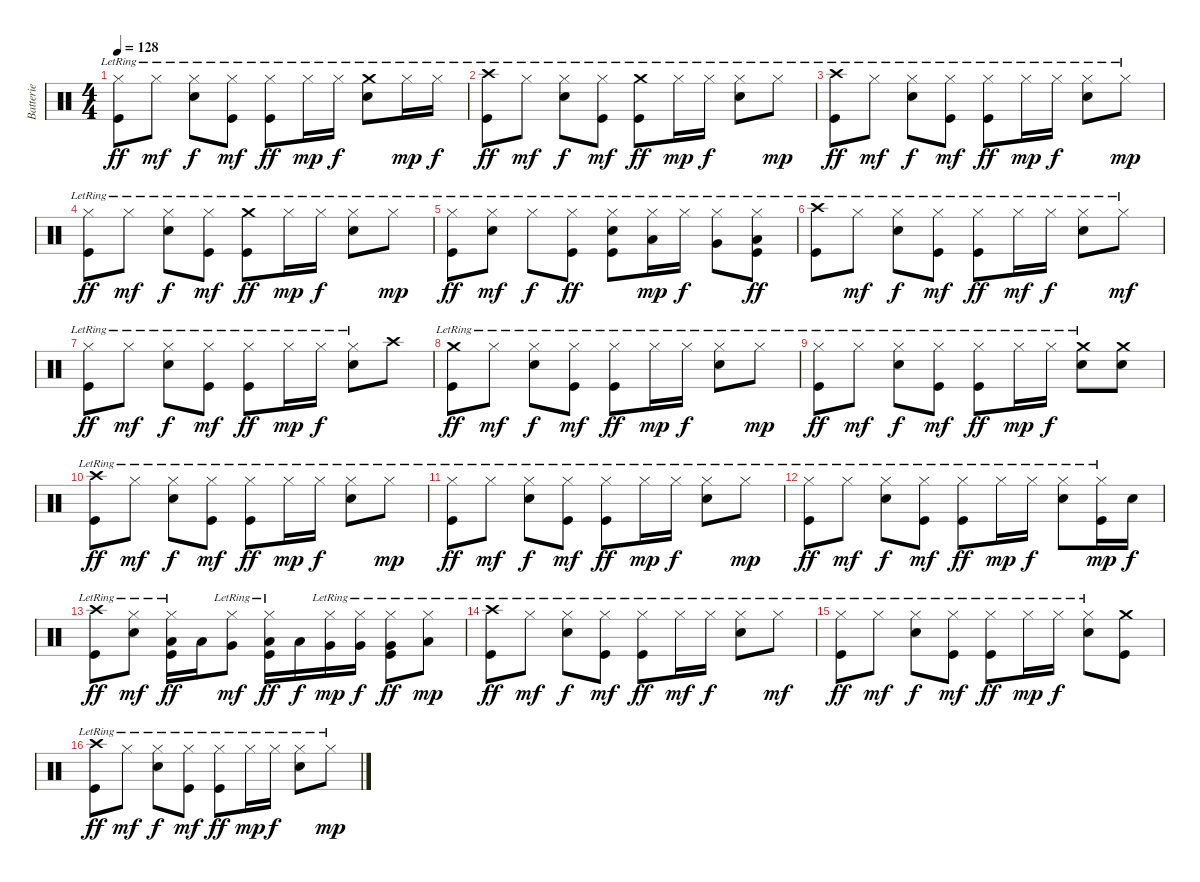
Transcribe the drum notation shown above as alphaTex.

\track ("Batterie" "Batterie") {instrument percussion}
\staff {score}
\articulation defaults
\ts (4 4)
\tempo 128
\clef neutral
\ks c
("Hi-Hat (closed)"{lr} "Kick (hit)"{lr}).8{dy ff} "Hi-Hat (closed)"{lr}.8{dy mf} ("Hi-Hat (closed)"{lr} "Snare (hit) 2"{lr}).8{dy f} ("Hi-Hat (closed)"{lr} "Kick (hit)"{lr}).8{dy mf} ("Hi-Hat (closed)"{lr} "Kick (hit)"{lr}).8{dy ff} "Hi-Hat (closed)"{lr}.16{dy mp} "Hi-Hat (closed)"{lr}.16{dy f} ("Crash medium (hit)" "Snare (hit) 2"{lr}).8 "Hi-Hat (closed)"{lr}.16{dy mp} "Hi-Hat (closed)"{lr}.16{dy f} |
("Crash high (hit)" "Kick (hit)"{lr}).8{dy ff} "Hi-Hat (closed)"{lr}.8{dy mf} ("Hi-Hat (closed)"{lr} "Snare (hit) 2"{lr}).8{dy f} ("Hi-Hat (closed)"{lr} "Kick (hit)"{lr}).8{dy mf} ("Crash medium (hit)" "Kick (hit)"{lr}).8{dy ff} "Hi-Hat (closed)"{lr}.16{dy mp} "Hi-Hat (closed)"{lr}.16{dy f} ("Hi-Hat (closed)"{lr} "Snare (hit) 2"{lr}).8 "Hi-Hat (closed)"{lr}.8{dy mp} |
("Crash high (hit)" "Kick (hit)"{lr}).8{dy ff} "Hi-Hat (closed)"{lr}.8{dy mf} ("Hi-Hat (closed)"{lr} "Snare (hit) 2"{lr}).8{dy f} ("Hi-Hat (closed)"{lr} "Kick (hit)"{lr}).8{dy mf} ("Hi-Hat (closed)"{lr} "Kick (hit)"{lr}).8{dy ff} "Hi-Hat (closed)"{lr}.16{dy mp} "Hi-Hat (closed)"{lr}.16{dy f} ("Hi-Hat (closed)"{lr} "Snare (hit) 2"{lr}).8 "Hi-Hat (closed)"{lr}.8{dy mp} |
("Hi-Hat (closed)"{lr} "Kick (hit)"{lr}).8{dy ff} "Hi-Hat (closed)"{lr}.8{dy mf} ("Hi-Hat (closed)"{lr} "Snare (hit) 2"{lr}).8{dy f} ("Hi-Hat (closed)"{lr} "Kick (hit)"{lr}).8{dy mf} ("Crash medium (hit)" "Kick (hit)"{lr}).8{dy ff} "Hi-Hat (closed)"{lr}.16{dy mp} "Hi-Hat (closed)"{lr}.16{dy f} ("Hi-Hat (closed)"{lr} "Snare (hit) 2"{lr}).8 "Hi-Hat (closed)"{lr}.8{dy mp} |
("Hi-Hat (closed)"{lr} "Kick (hit)"{lr}).8{dy ff} ("Hi-Hat (closed)"{lr} "Snare (hit) 2").8{dy mf} "Hi-Hat (closed)"{lr}.8{dy f} ("Hi-Hat (closed)"{lr} "Kick (hit)").8{dy ff} ("Hi-Hat (closed)"{lr} "Snare (hit) 2" "Kick (hit)"{lr}).8 ("Low Tom (hit)" "Hi-Hat (closed)"{lr}).16{dy mp} "Hi-Hat (closed)"{lr}.16{dy f} ("Very Low Tom (hit)" "Hi-Hat (closed)"{lr}).8 ("Low Floor Tom (hit)" "Hi-Hat (closed)"{lr} "Kick (hit)"{lr}).8{dy ff} |
("Crash high (hit)"{lr} "Kick (hit)"{lr}).8 "Hi-Hat (closed)"{lr}.8{dy mf} ("Hi-Hat (closed)"{lr} "Snare (hit) 2"{lr}).8{dy f} ("Hi-Hat (closed)"{lr} "Kick (hit)"{lr}).8{dy mf} ("Hi-Hat (closed)"{lr} "Kick (hit)"{lr}).8{dy ff} "Hi-Hat (closed)"{lr}.16{dy mf} "Hi-Hat (closed)"{lr}.16{dy f} ("Hi-Hat (closed)"{lr} "Snare (hit) 2"{lr}).8 "Hi-Hat (closed)"{lr}.8{dy mf} |
("Hi-Hat (closed)"{lr} "Kick (hit)"{lr}).8{dy ff} "Hi-Hat (closed)"{lr}.8{dy mf} ("Hi-Hat (closed)"{lr} "Snare (hit) 2"{lr}).8{dy f} ("Hi-Hat (closed)"{lr} "Kick (hit)"{lr}).8{dy mf} ("Hi-Hat (closed)"{lr} "Kick (hit)"{lr}).8{dy ff} "Hi-Hat (closed)"{lr}.16{dy mp} "Hi-Hat (closed)"{lr}.16{dy f} ("Hi-Hat (closed)"{lr} "Snare (hit) 2"{lr}).8 "Crash high (hit)".8 |
("Crash medium (hit)" "Kick (hit)"{lr}).8{dy ff} "Hi-Hat (closed)"{lr}.8{dy mf} ("Hi-Hat (closed)"{lr} "Snare (hit) 2"{lr}).8{dy f} ("Hi-Hat (closed)"{lr} "Kick (hit)"{lr}).8{dy mf} ("Hi-Hat (closed)"{lr} "Kick (hit)"{lr}).8{dy ff} "Hi-Hat (closed)"{lr}.16{dy mp} "Hi-Hat (closed)"{lr}.16{dy f} ("Hi-Hat (closed)"{lr} "Snare (hit) 2"{lr}).8 "Hi-Hat (closed)"{lr}.8{dy mp} |
("Hi-Hat (closed)"{lr} "Kick (hit)"{lr}).8{dy ff} "Hi-Hat (closed)"{lr}.8{dy mf} ("Hi-Hat (closed)"{lr} "Snare (hit) 2"{lr}).8{dy f} ("Hi-Hat (closed)"{lr} "Kick (hit)"{lr}).8{dy mf} ("Hi-Hat (closed)"{lr} "Kick (hit)"{lr}).8{dy ff} "Hi-Hat (closed)"{lr}.16{dy mp} "Hi-Hat (closed)"{lr}.16{dy f} ("Crash medium (hit)" "Snare (hit) 2"{lr}).8 ("Crash medium (hit)" "Snare (hit) 2").8 |
("Crash high (hit)" "Kick (hit)"{lr}).8{dy ff} "Hi-Hat (closed)"{lr}.8{dy mf} ("Hi-Hat (closed)"{lr} "Snare (hit) 2"{lr}).8{dy f} ("Hi-Hat (closed)"{lr} "Kick (hit)"{lr}).8{dy mf} ("Hi-Hat (closed)"{lr} "Kick (hit)"{lr}).8{dy ff} "Hi-Hat (closed)"{lr}.16{dy mp} "Hi-Hat (closed)"{lr}.16{dy f} ("Hi-Hat (closed)"{lr} "Snare (hit) 2"{lr}).8 "Hi-Hat (closed)"{lr}.8{dy mp} |
("Hi-Hat (closed)"{lr} "Kick (hit)"{lr}).8{dy ff} "Hi-Hat (closed)"{lr}.8{dy mf} ("Hi-Hat (closed)"{lr} "Snare (hit) 2"{lr}).8{dy f} ("Hi-Hat (closed)"{lr} "Kick (hit)"{lr}).8{dy mf} ("Hi-Hat (closed)"{lr} "Kick (hit)"{lr}).8{dy ff} "Hi-Hat (closed)"{lr}.16{dy mp} "Hi-Hat (closed)"{lr}.16{dy f} ("Hi-Hat (closed)"{lr} "Snare (hit) 2"{lr}).8 "Hi-Hat (closed)"{lr}.8{dy mp} |
("Hi-Hat (closed)"{lr} "Kick (hit)"{lr}).8{dy ff} "Hi-Hat (closed)"{lr}.8{dy mf} ("Hi-Hat (closed)"{lr} "Snare (hit) 2"{lr}).8{dy f} ("Hi-Hat (closed)"{lr} "Kick (hit)"{lr}).8{dy mf} ("Hi-Hat (closed)"{lr} "Kick (hit)"{lr}).8{dy ff} "Hi-Hat (closed)"{lr}.16{dy mp} "Hi-Hat (closed)"{lr}.16{dy f} ("Hi-Hat (closed)"{lr} "Snare (hit) 2"{lr}).8 ("Hi-Hat (closed)"{lr} "Kick (hit)").16{dy mp} "Snare (hit) 2".16{dy f} |
("Crash high (hit)"{lr} "Kick (hit)"{lr}).8{dy ff} ("Hi-Hat (closed)"{lr} "Snare (hit) 2").8{dy mf} ("Low Tom (hit)" "Hi-Hat (closed)"{lr} "Kick (hit)").16{dy ff} "Low Tom (hit)".16 ("Very Low Tom (hit)" "Hi-Hat (closed)"{lr}).8{dy mf} ("Low Tom (hit)" "Hi-Hat (closed)"{lr} "Kick (hit)").16{dy ff} "Low Tom (hit)".16{dy f} ("Very Low Tom (hit)" "Hi-Hat (closed)"{lr}).16{dy mp} ("Very Low Tom (hit)" "Hi-Hat (closed)"{lr}).16{dy f} ("Very Low Tom (hit)" "Hi-Hat (closed)"{lr} "Kick (hit)").8{dy ff} ("Low Floor Tom (hit)" "Hi-Hat (closed)"{lr}).8{dy mp} |
("Crash high (hit)"{lr} "Kick (hit)"{lr}).8{dy ff} "Hi-Hat (closed)"{lr}.8{dy mf} ("Hi-Hat (closed)"{lr} "Snare (hit) 2"{lr}).8{dy f} ("Hi-Hat (closed)"{lr} "Kick (hit)"{lr}).8{dy mf} ("Hi-Hat (closed)"{lr} "Kick (hit)"{lr}).8{dy ff} "Hi-Hat (closed)"{lr}.16{dy mf} "Hi-Hat (closed)"{lr}.16{dy f} ("Hi-Hat (closed)"{lr} "Snare (hit) 2"{lr}).8 "Hi-Hat (closed)"{lr}.8{dy mf} |
("Hi-Hat (closed)"{lr} "Kick (hit)"{lr}).8{dy ff} "Hi-Hat (closed)"{lr}.8{dy mf} ("Hi-Hat (closed)"{lr} "Snare (hit) 2"{lr}).8{dy f} ("Hi-Hat (closed)"{lr} "Kick (hit)"{lr}).8{dy mf} ("Hi-Hat (closed)"{lr} "Kick (hit)"{lr}).8{dy ff} "Hi-Hat (closed)"{lr}.16{dy mp} "Hi-Hat (closed)"{lr}.16{dy f} ("Hi-Hat (closed)"{lr} "Snare (hit) 2"{lr}).8 ("Crash medium (hit)" "Kick (hit)").8 |
("Crash high (hit)" "Kick (hit)"{lr}).8{dy ff} "Hi-Hat (closed)"{lr}.8{dy mf} ("Hi-Hat (closed)"{lr} "Snare (hit) 2"{lr}).8{dy f} ("Hi-Hat (closed)"{lr} "Kick (hit)"{lr}).8{dy mf} ("Hi-Hat (closed)"{lr} "Kick (hit)"{lr}).8{dy ff} "Hi-Hat (closed)"{lr}.16{dy mp} "Hi-Hat (closed)"{lr}.16{dy f} ("Hi-Hat (closed)"{lr} "Snare (hit) 2"{lr}).8 "Hi-Hat (closed)"{lr}.8{dy mp}
